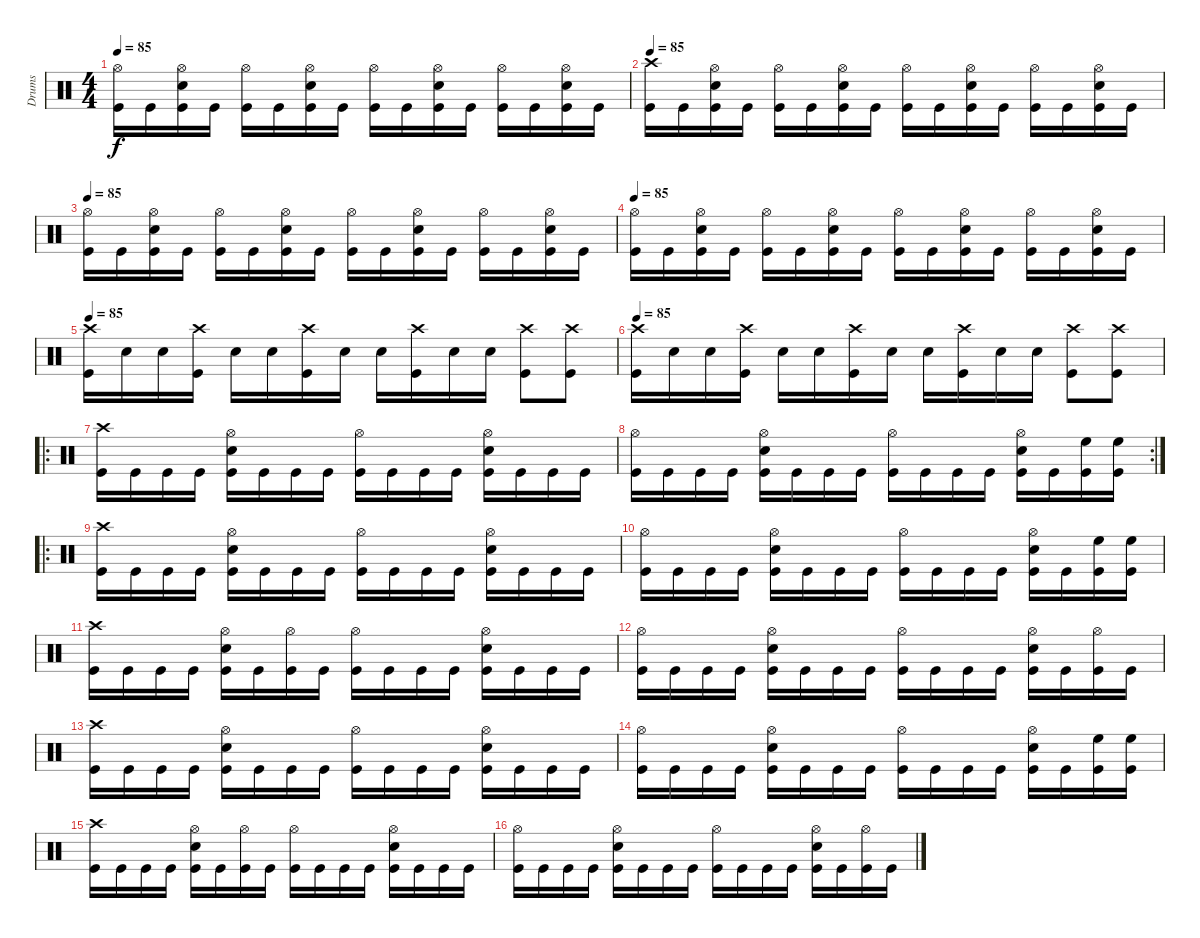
\track ("Drums" "Drums") {instrument percussion}
\staff {score}
\articulation defaults
\ts (4 4)
\tempo 85
\clef neutral
\ks c
("Hi-Hat (open)" "Kick (hit)").16{dy f} "Kick (hit)".16 ("Hi-Hat (open)" "Snare (hit) 2" "Kick (hit)").16 "Kick (hit)".16 ("Hi-Hat (open)" "Kick (hit)").16 "Kick (hit)".16 ("Hi-Hat (open)" "Snare (hit) 2" "Kick (hit)").16 "Kick (hit)".16 ("Hi-Hat (open)" "Kick (hit)").16 "Kick (hit)".16 ("Hi-Hat (open)" "Snare (hit) 2" "Kick (hit)").16 "Kick (hit)".16 ("Hi-Hat (open)" "Kick (hit)").16 "Kick (hit)".16 ("Hi-Hat (open)" "Snare (hit) 2" "Kick (hit)").16 "Kick (hit)".16 |
\tempo 85
("Crash high (hit)" "Kick (hit)").16 "Kick (hit)".16 ("Hi-Hat (open)" "Snare (hit) 2" "Kick (hit)").16 "Kick (hit)".16 ("Hi-Hat (open)" "Kick (hit)").16 "Kick (hit)".16 ("Hi-Hat (open)" "Snare (hit) 2" "Kick (hit)").16 "Kick (hit)".16 ("Hi-Hat (open)" "Kick (hit)").16 "Kick (hit)".16 ("Hi-Hat (open)" "Snare (hit) 2" "Kick (hit)").16 "Kick (hit)".16 ("Hi-Hat (open)" "Kick (hit)").16 "Kick (hit)".16 ("Hi-Hat (open)" "Snare (hit) 2" "Kick (hit)").16 "Kick (hit)".16 |
\tempo 85
("Hi-Hat (open)" "Kick (hit)").16 "Kick (hit)".16 ("Hi-Hat (open)" "Snare (hit) 2" "Kick (hit)").16 "Kick (hit)".16 ("Hi-Hat (open)" "Kick (hit)").16 "Kick (hit)".16 ("Hi-Hat (open)" "Snare (hit) 2" "Kick (hit)").16 "Kick (hit)".16 ("Hi-Hat (open)" "Kick (hit)").16 "Kick (hit)".16 ("Hi-Hat (open)" "Snare (hit) 2" "Kick (hit)").16 "Kick (hit)".16 ("Hi-Hat (open)" "Kick (hit)").16 "Kick (hit)".16 ("Hi-Hat (open)" "Snare (hit) 2" "Kick (hit)").16 "Kick (hit)".16 |
\tempo 85
("Hi-Hat (open)" "Kick (hit)").16 "Kick (hit)".16 ("Hi-Hat (open)" "Snare (hit) 2" "Kick (hit)").16 "Kick (hit)".16 ("Hi-Hat (open)" "Kick (hit)").16 "Kick (hit)".16 ("Hi-Hat (open)" "Snare (hit) 2" "Kick (hit)").16 "Kick (hit)".16 ("Hi-Hat (open)" "Kick (hit)").16 "Kick (hit)".16 ("Hi-Hat (open)" "Snare (hit) 2" "Kick (hit)").16 "Kick (hit)".16 ("Hi-Hat (open)" "Kick (hit)").16 "Kick (hit)".16 ("Hi-Hat (open)" "Snare (hit) 2" "Kick (hit)").16 "Kick (hit)".16 |
\tempo 85
("Crash high (hit)" "Kick (hit)").16 "Snare (hit) 2".16 "Snare (hit) 2".16 ("Crash high (hit)" "Kick (hit)").16 "Snare (hit) 2".16 "Snare (hit) 2".16 ("Crash high (hit)" "Kick (hit)").16 "Snare (hit) 2".16 "Snare (hit) 2".16 ("Crash high (hit)" "Kick (hit)").16 "Snare (hit) 2".16 "Snare (hit) 2".16 ("Crash high (hit)" "Kick (hit)").8 ("Crash high (hit)" "Kick (hit)").8 |
\tempo 85
("Crash high (hit)" "Kick (hit)").16 "Snare (hit) 2".16 "Snare (hit) 2".16 ("Crash high (hit)" "Kick (hit)").16 "Snare (hit) 2".16 "Snare (hit) 2".16 ("Crash high (hit)" "Kick (hit)").16 "Snare (hit) 2".16 "Snare (hit) 2".16 ("Crash high (hit)" "Kick (hit)").16 "Snare (hit) 2".16 "Snare (hit) 2".16 ("Crash high (hit)" "Kick (hit)").8 ("Crash high (hit)" "Kick (hit)").8 |
\ro
("Crash high (hit)" "Kick (hit)").16 "Kick (hit)".16 "Kick (hit)".16 "Kick (hit)".16 ("Hi-Hat (open)" "Snare (hit) 2" "Kick (hit)").16 "Kick (hit)".16 "Kick (hit)".16 "Kick (hit)".16 ("Hi-Hat (open)" "Kick (hit)").16 "Kick (hit)".16 "Kick (hit)".16 "Kick (hit)".16 ("Hi-Hat (open)" "Snare (hit) 2" "Kick (hit)").16 "Kick (hit)".16 "Kick (hit)".16 "Kick (hit)".16 |
\rc 2
("Hi-Hat (open)" "Kick (hit)").16 "Kick (hit)".16 "Kick (hit)".16 "Kick (hit)".16 ("Hi-Hat (open)" "Snare (hit) 2" "Kick (hit)").16 "Kick (hit)".16 "Kick (hit)".16 "Kick (hit)".16 ("Hi-Hat (open)" "Kick (hit)").16 "Kick (hit)".16 "Kick (hit)".16 "Kick (hit)".16 ("Hi-Hat (open)" "Snare (hit) 2" "Kick (hit)").16 "Kick (hit)".16 ("High Floor Tom (hit)" "Kick (hit)").16 ("High Floor Tom (hit)" "Kick (hit)").16 |
\ro
("Crash high (hit)" "Kick (hit)").16 "Kick (hit)".16 "Kick (hit)".16 "Kick (hit)".16 ("Hi-Hat (open)" "Snare (hit) 2" "Kick (hit)").16 "Kick (hit)".16 "Kick (hit)".16 "Kick (hit)".16 ("Hi-Hat (open)" "Kick (hit)").16 "Kick (hit)".16 "Kick (hit)".16 "Kick (hit)".16 ("Hi-Hat (open)" "Snare (hit) 2" "Kick (hit)").16 "Kick (hit)".16 "Kick (hit)".16 "Kick (hit)".16 |
("Hi-Hat (open)" "Kick (hit)").16 "Kick (hit)".16 "Kick (hit)".16 "Kick (hit)".16 ("Hi-Hat (open)" "Snare (hit) 2" "Kick (hit)").16 "Kick (hit)".16 "Kick (hit)".16 "Kick (hit)".16 ("Hi-Hat (open)" "Kick (hit)").16 "Kick (hit)".16 "Kick (hit)".16 "Kick (hit)".16 ("Hi-Hat (open)" "Snare (hit) 2" "Kick (hit)").16 "Kick (hit)".16 ("High Floor Tom (hit)" "Kick (hit)").16 ("High Floor Tom (hit)" "Kick (hit)").16 |
("Crash high (hit)" "Kick (hit)").16 "Kick (hit)".16 "Kick (hit)".16 "Kick (hit)".16 ("Hi-Hat (open)" "Snare (hit) 2" "Kick (hit)").16 "Kick (hit)".16 ("Hi-Hat (open)" "Kick (hit)").16 "Kick (hit)".16 ("Hi-Hat (open)" "Kick (hit)").16 "Kick (hit)".16 "Kick (hit)".16 "Kick (hit)".16 ("Hi-Hat (open)" "Snare (hit) 2" "Kick (hit)").16 "Kick (hit)".16 "Kick (hit)".16 "Kick (hit)".16 |
("Hi-Hat (open)" "Kick (hit)").16 "Kick (hit)".16 "Kick (hit)".16 "Kick (hit)".16 ("Hi-Hat (open)" "Snare (hit) 2" "Kick (hit)").16 "Kick (hit)".16 "Kick (hit)".16 "Kick (hit)".16 ("Hi-Hat (open)" "Kick (hit)").16 "Kick (hit)".16 "Kick (hit)".16 "Kick (hit)".16 ("Hi-Hat (open)" "Snare (hit) 2" "Kick (hit)").16 "Kick (hit)".16 ("Hi-Hat (open)" "Kick (hit)").16 "Kick (hit)".16 |
("Crash high (hit)" "Kick (hit)").16 "Kick (hit)".16 "Kick (hit)".16 "Kick (hit)".16 ("Hi-Hat (open)" "Snare (hit) 2" "Kick (hit)").16 "Kick (hit)".16 "Kick (hit)".16 "Kick (hit)".16 ("Hi-Hat (open)" "Kick (hit)").16 "Kick (hit)".16 "Kick (hit)".16 "Kick (hit)".16 ("Hi-Hat (open)" "Snare (hit) 2" "Kick (hit)").16 "Kick (hit)".16 "Kick (hit)".16 "Kick (hit)".16 |
("Hi-Hat (open)" "Kick (hit)").16 "Kick (hit)".16 "Kick (hit)".16 "Kick (hit)".16 ("Hi-Hat (open)" "Snare (hit) 2" "Kick (hit)").16 "Kick (hit)".16 "Kick (hit)".16 "Kick (hit)".16 ("Hi-Hat (open)" "Kick (hit)").16 "Kick (hit)".16 "Kick (hit)".16 "Kick (hit)".16 ("Hi-Hat (open)" "Snare (hit) 2" "Kick (hit)").16 "Kick (hit)".16 ("High Floor Tom (hit)" "Kick (hit)").16 ("High Floor Tom (hit)" "Kick (hit)").16 |
("Crash high (hit)" "Kick (hit)").16 "Kick (hit)".16 "Kick (hit)".16 "Kick (hit)".16 ("Hi-Hat (open)" "Snare (hit) 2" "Kick (hit)").16 "Kick (hit)".16 ("Hi-Hat (open)" "Kick (hit)").16 "Kick (hit)".16 ("Hi-Hat (open)" "Kick (hit)").16 "Kick (hit)".16 "Kick (hit)".16 "Kick (hit)".16 ("Hi-Hat (open)" "Snare (hit) 2" "Kick (hit)").16 "Kick (hit)".16 "Kick (hit)".16 "Kick (hit)".16 |
("Hi-Hat (open)" "Kick (hit)").16 "Kick (hit)".16 "Kick (hit)".16 "Kick (hit)".16 ("Hi-Hat (open)" "Snare (hit) 2" "Kick (hit)").16 "Kick (hit)".16 "Kick (hit)".16 "Kick (hit)".16 ("Hi-Hat (open)" "Kick (hit)").16 "Kick (hit)".16 "Kick (hit)".16 "Kick (hit)".16 ("Hi-Hat (open)" "Snare (hit) 2" "Kick (hit)").16 "Kick (hit)".16 ("Hi-Hat (open)" "Kick (hit)").16 "Kick (hit)".16
